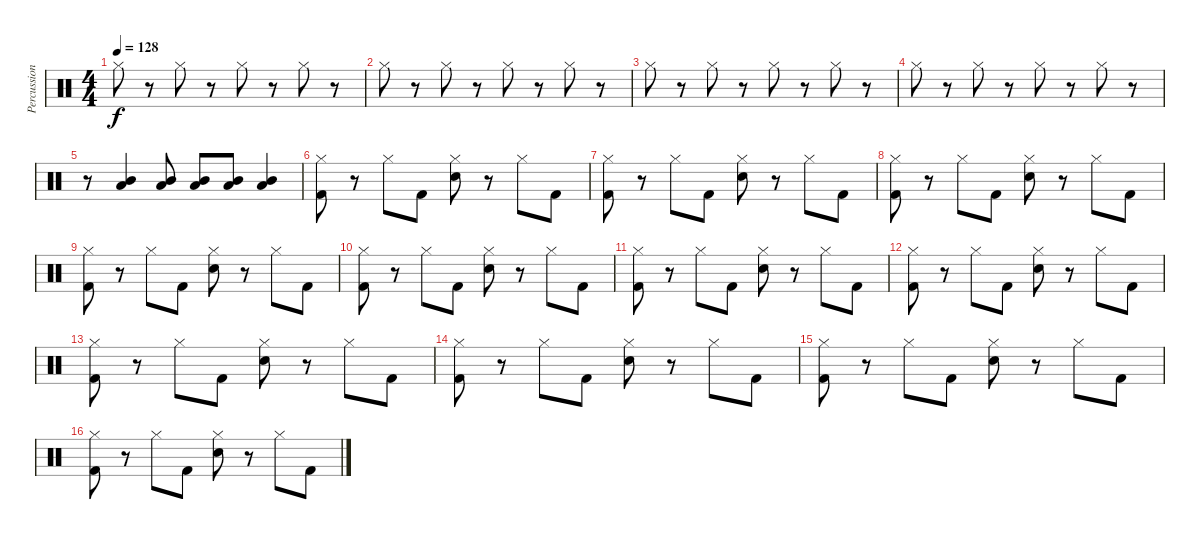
\track ("Percussion" "Percussion") {instrument percussion}
\staff {score}
\articulation defaults
\ts (4 4)
\tempo 128
\clef neutral
\ks c "Hi-Hat (closed)".8{dy f}
r.8 "Hi-Hat (closed)".8 r.8 "Hi-Hat (closed)".8 r.8 "Hi-Hat (closed)".8 r.8 |
"Hi-Hat (closed)".8 r.8 "Hi-Hat (closed)".8 r.8 "Hi-Hat (closed)".8 r.8 "Hi-Hat (closed)".8 r.8 |
"Hi-Hat (closed)".8 r.8 "Hi-Hat (closed)".8 r.8 "Hi-Hat (closed)".8 r.8 "Hi-Hat (closed)".8 r.8 |
"Hi-Hat (closed)".8 r.8 "Hi-Hat (closed)".8 r.8 "Hi-Hat (closed)".8 r.8 "Hi-Hat (closed)".8 r.8 |
r.8 ("Low Tom (hit)" "Mid Tom (hit)").4 ("Low Tom (hit)" "Mid Tom (hit)").8 ("Low Tom (hit)" "Mid Tom (hit)").8 ("Low Tom (hit)" "Mid Tom (hit)").8 ("Low Tom (hit)" "Mid Tom (hit)").4 |
("Hi-Hat (closed)" "Kick (hit) 2").8 r.8 "Hi-Hat (closed)".8 "Kick (hit) 2".8 ("Hi-Hat (closed)" "Snare (hit) 2").8 r.8 "Hi-Hat (closed)".8 "Kick (hit) 2".8 |
("Hi-Hat (closed)" "Kick (hit) 2").8 r.8 "Hi-Hat (closed)".8 "Kick (hit) 2".8 ("Hi-Hat (closed)" "Snare (hit) 2").8 r.8 "Hi-Hat (closed)".8 "Kick (hit) 2".8 |
("Hi-Hat (closed)" "Kick (hit) 2").8 r.8 "Hi-Hat (closed)".8 "Kick (hit) 2".8 ("Hi-Hat (closed)" "Snare (hit) 2").8 r.8 "Hi-Hat (closed)".8 "Kick (hit) 2".8 |
("Hi-Hat (closed)" "Kick (hit) 2").8 r.8 "Hi-Hat (closed)".8 "Kick (hit) 2".8 ("Hi-Hat (closed)" "Snare (hit) 2").8 r.8 "Hi-Hat (closed)".8 "Kick (hit) 2".8 |
("Hi-Hat (closed)" "Kick (hit) 2").8 r.8 "Hi-Hat (closed)".8 "Kick (hit) 2".8 ("Hi-Hat (closed)" "Snare (hit) 2").8 r.8 "Hi-Hat (closed)".8 "Kick (hit) 2".8 |
("Hi-Hat (closed)" "Kick (hit) 2").8 r.8 "Hi-Hat (closed)".8 "Kick (hit) 2".8 ("Hi-Hat (closed)" "Snare (hit) 2").8 r.8 "Hi-Hat (closed)".8 "Kick (hit) 2".8 |
("Hi-Hat (closed)" "Kick (hit) 2").8 r.8 "Hi-Hat (closed)".8 "Kick (hit) 2".8 ("Hi-Hat (closed)" "Snare (hit) 2").8 r.8 "Hi-Hat (closed)".8 "Kick (hit) 2".8 |
("Hi-Hat (closed)" "Kick (hit) 2").8 r.8 "Hi-Hat (closed)".8 "Kick (hit) 2".8 ("Hi-Hat (closed)" "Snare (hit) 2").8 r.8 "Hi-Hat (closed)".8 "Kick (hit) 2".8 |
("Hi-Hat (closed)" "Kick (hit) 2").8 r.8 "Hi-Hat (closed)".8 "Kick (hit) 2".8 ("Hi-Hat (closed)" "Snare (hit) 2").8 r.8 "Hi-Hat (closed)".8 "Kick (hit) 2".8 |
("Hi-Hat (closed)" "Kick (hit) 2").8 r.8 "Hi-Hat (closed)".8 "Kick (hit) 2".8 ("Hi-Hat (closed)" "Snare (hit) 2").8 r.8 "Hi-Hat (closed)".8 "Kick (hit) 2".8 |
("Hi-Hat (closed)" "Kick (hit) 2").8 r.8 "Hi-Hat (closed)".8 "Kick (hit) 2".8 ("Hi-Hat (closed)" "Snare (hit) 2").8 r.8 "Hi-Hat (closed)".8 "Kick (hit) 2".8
